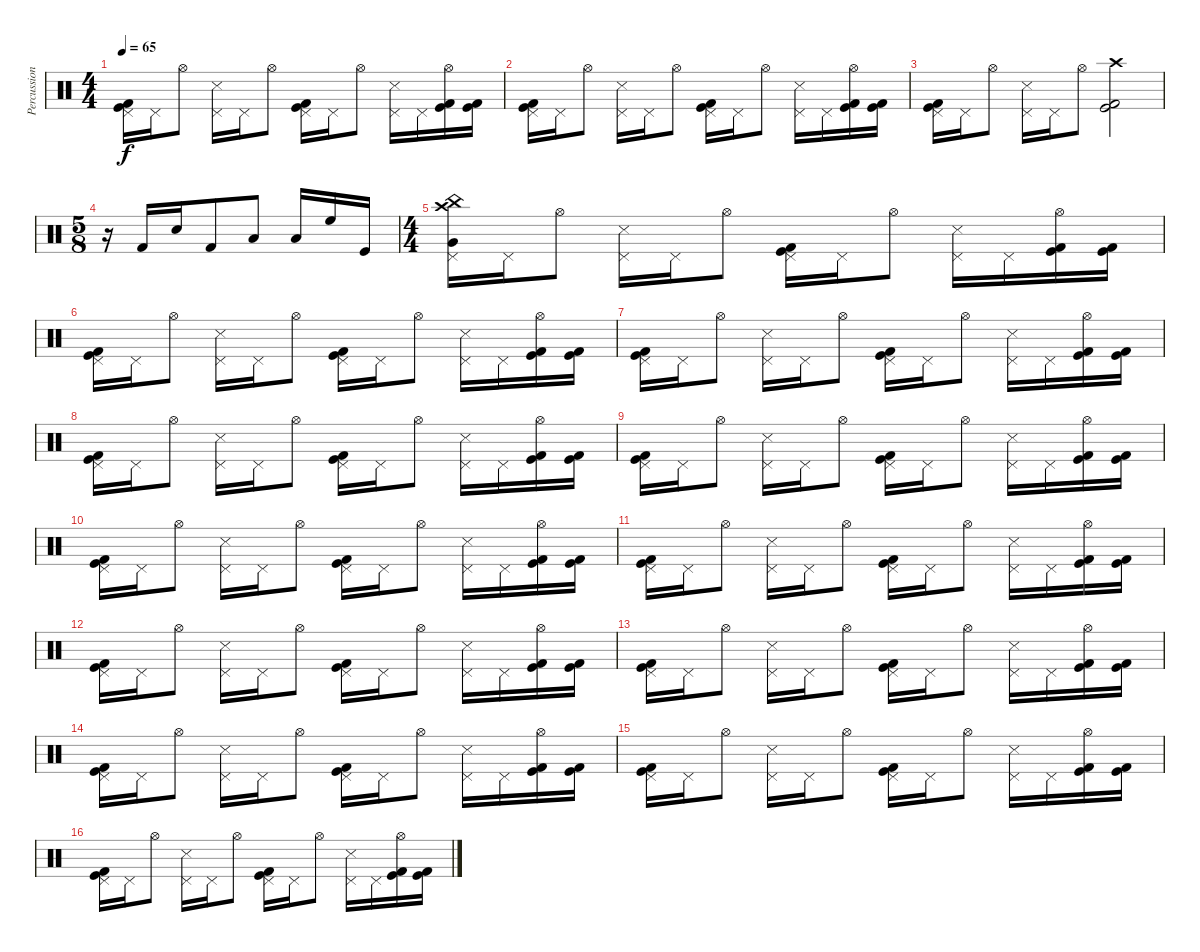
\track ("Percussion" "Percussion") {instrument percussion}
\staff {score}
\articulation defaults
\ts (4 4)
\tempo 65
\clef neutral
\ks c
("Pedal Hi-Hat (hit)" "Kick (hit)" "Kick (hit) 2").16{dy f} "Pedal Hi-Hat (hit)".16 "Hi-Hat (open)".8 ("Pedal Hi-Hat (hit)" "Snare (side stick) 3").16 "Pedal Hi-Hat (hit)".16 "Hi-Hat (open)".8 ("Pedal Hi-Hat (hit)" "Kick (hit) 2" "Kick (hit)").16 "Pedal Hi-Hat (hit)".16 "Hi-Hat (open)".8 ("Pedal Hi-Hat (hit)" "Snare (side stick) 3").16 "Pedal Hi-Hat (hit)".16 ("Hi-Hat (open)" "Kick (hit)" "Kick (hit) 2").16 ("Kick (hit)" "Kick (hit) 2").16 |
("Pedal Hi-Hat (hit)" "Kick (hit)" "Kick (hit) 2").16 "Pedal Hi-Hat (hit)".16 "Hi-Hat (open)".8 ("Pedal Hi-Hat (hit)" "Snare (side stick) 3").16 "Pedal Hi-Hat (hit)".16 "Hi-Hat (open)".8 ("Pedal Hi-Hat (hit)" "Kick (hit) 2" "Kick (hit)").16 "Pedal Hi-Hat (hit)".16 "Hi-Hat (open)".8 ("Pedal Hi-Hat (hit)" "Snare (side stick) 3").16 "Pedal Hi-Hat (hit)".16 ("Hi-Hat (open)" "Kick (hit)" "Kick (hit) 2").16 ("Kick (hit)" "Kick (hit) 2").16 |
("Pedal Hi-Hat (hit)" "Kick (hit)" "Kick (hit) 2").16 "Pedal Hi-Hat (hit)".16 "Hi-Hat (open)".8 ("Pedal Hi-Hat (hit)" "Snare (side stick) 3").16 "Pedal Hi-Hat (hit)".16 "Hi-Hat (open)".8 ("Crash high (hit)" "Kick (hit) 2" "Kick (hit)").2 |
\ts (5 8)
r.16 "Kick (hit) 2".16 "Snare (hit) 2".16 "Kick (hit) 2".8 "Low Tom (hit)".8 "Low Tom (hit)".16 "High Floor Tom (hit)".16 "Kick (hit)".16 |
\ts (4 4)
("China (hit)" "Pedal Hi-Hat (hit)" "Very Low Tom (hit)" "Crash high (hit)").16 "Pedal Hi-Hat (hit)".16 "Hi-Hat (open)".8 ("Pedal Hi-Hat (hit)" "Snare (side stick) 3").16 "Pedal Hi-Hat (hit)".16 "Hi-Hat (open)".8 ("Pedal Hi-Hat (hit)" "Kick (hit)" "Kick (hit) 2").16 "Pedal Hi-Hat (hit)".16 "Hi-Hat (open)".8 ("Pedal Hi-Hat (hit)" "Snare (side stick) 3").16 "Pedal Hi-Hat (hit)".16 ("Hi-Hat (open)" "Kick (hit)" "Kick (hit) 2").16 ("Kick (hit)" "Kick (hit) 2").16 |
("Pedal Hi-Hat (hit)" "Kick (hit)" "Kick (hit) 2").16 "Pedal Hi-Hat (hit)".16 "Hi-Hat (open)".8 ("Pedal Hi-Hat (hit)" "Snare (side stick) 3").16 "Pedal Hi-Hat (hit)".16 "Hi-Hat (open)".8 ("Pedal Hi-Hat (hit)" "Kick (hit) 2" "Kick (hit)").16 "Pedal Hi-Hat (hit)".16 "Hi-Hat (open)".8 ("Pedal Hi-Hat (hit)" "Snare (side stick) 3").16 "Pedal Hi-Hat (hit)".16 ("Hi-Hat (open)" "Kick (hit)" "Kick (hit) 2").16 ("Kick (hit)" "Kick (hit) 2").16 |
("Pedal Hi-Hat (hit)" "Kick (hit)" "Kick (hit) 2").16 "Pedal Hi-Hat (hit)".16 "Hi-Hat (open)".8 ("Pedal Hi-Hat (hit)" "Metronome (hit)").16 "Pedal Hi-Hat (hit)".16 "Hi-Hat (open)".8 ("Pedal Hi-Hat (hit)" "Kick (hit) 2" "Kick (hit)").16 "Pedal Hi-Hat (hit)".16 "Hi-Hat (open)".8 ("Pedal Hi-Hat (hit)" "Snare (side stick) 3").16 "Pedal Hi-Hat (hit)".16 ("Hi-Hat (open)" "Kick (hit)" "Kick (hit) 2").16 ("Kick (hit)" "Kick (hit) 2").16 |
("Pedal Hi-Hat (hit)" "Kick (hit)" "Kick (hit) 2").16 "Pedal Hi-Hat (hit)".16 "Hi-Hat (open)".8 ("Pedal Hi-Hat (hit)" "Snare (side stick) 3").16 "Pedal Hi-Hat (hit)".16 "Hi-Hat (open)".8 ("Pedal Hi-Hat (hit)" "Kick (hit) 2" "Kick (hit)").16 "Pedal Hi-Hat (hit)".16 "Hi-Hat (open)".8 ("Pedal Hi-Hat (hit)" "Snare (side stick) 3").16 "Pedal Hi-Hat (hit)".16 ("Hi-Hat (open)" "Kick (hit)" "Kick (hit) 2").16 ("Kick (hit)" "Kick (hit) 2").16 |
("Pedal Hi-Hat (hit)" "Kick (hit)" "Kick (hit) 2").16 "Pedal Hi-Hat (hit)".16 "Hi-Hat (open)".8 ("Pedal Hi-Hat (hit)" "Snare (side stick) 3").16 "Pedal Hi-Hat (hit)".16 "Hi-Hat (open)".8 ("Pedal Hi-Hat (hit)" "Kick (hit) 2" "Kick (hit)").16 "Pedal Hi-Hat (hit)".16 "Hi-Hat (open)".8 ("Pedal Hi-Hat (hit)" "Snare (side stick) 3").16 "Pedal Hi-Hat (hit)".16 ("Hi-Hat (open)" "Kick (hit)" "Kick (hit) 2").16 ("Kick (hit)" "Kick (hit) 2").16 |
("Pedal Hi-Hat (hit)" "Kick (hit)" "Kick (hit) 2").16 "Pedal Hi-Hat (hit)".16 "Hi-Hat (open)".8 ("Pedal Hi-Hat (hit)" "Snare (side stick) 3").16 "Pedal Hi-Hat (hit)".16 "Hi-Hat (open)".8 ("Pedal Hi-Hat (hit)" "Kick (hit) 2" "Kick (hit)").16 "Pedal Hi-Hat (hit)".16 "Hi-Hat (open)".8 ("Pedal Hi-Hat (hit)" "Snare (side stick) 3").16 "Pedal Hi-Hat (hit)".16 ("Hi-Hat (open)" "Kick (hit)" "Kick (hit) 2").16 ("Kick (hit)" "Kick (hit) 2").16 |
("Pedal Hi-Hat (hit)" "Kick (hit)" "Kick (hit) 2").16 "Pedal Hi-Hat (hit)".16 "Hi-Hat (open)".8 ("Pedal Hi-Hat (hit)" "Snare (side stick) 3").16 "Pedal Hi-Hat (hit)".16 "Hi-Hat (open)".8 ("Pedal Hi-Hat (hit)" "Kick (hit) 2" "Kick (hit)").16 "Pedal Hi-Hat (hit)".16 "Hi-Hat (open)".8 ("Pedal Hi-Hat (hit)" "Snare (side stick) 3").16 "Pedal Hi-Hat (hit)".16 ("Hi-Hat (open)" "Kick (hit)" "Kick (hit) 2").16 ("Kick (hit)" "Kick (hit) 2").16 |
("Pedal Hi-Hat (hit)" "Kick (hit)" "Kick (hit) 2").16 "Pedal Hi-Hat (hit)".16 "Hi-Hat (open)".8 ("Pedal Hi-Hat (hit)" "Snare (side stick) 3").16 "Pedal Hi-Hat (hit)".16 "Hi-Hat (open)".8 ("Pedal Hi-Hat (hit)" "Kick (hit) 2" "Kick (hit)").16 "Pedal Hi-Hat (hit)".16 "Hi-Hat (open)".8 ("Pedal Hi-Hat (hit)" "Snare (side stick) 3").16 "Pedal Hi-Hat (hit)".16 ("Hi-Hat (open)" "Kick (hit)" "Kick (hit) 2").16 ("Kick (hit)" "Kick (hit) 2").16 |
("Pedal Hi-Hat (hit)" "Kick (hit)" "Kick (hit) 2").16 "Pedal Hi-Hat (hit)".16 "Hi-Hat (open)".8 ("Pedal Hi-Hat (hit)" "Snare (side stick) 3").16 "Pedal Hi-Hat (hit)".16 "Hi-Hat (open)".8 ("Pedal Hi-Hat (hit)" "Kick (hit) 2" "Kick (hit)").16 "Pedal Hi-Hat (hit)".16 "Hi-Hat (open)".8 ("Pedal Hi-Hat (hit)" "Snare (side stick) 3").16 "Pedal Hi-Hat (hit)".16 ("Hi-Hat (open)" "Kick (hit)" "Kick (hit) 2").16 ("Kick (hit)" "Kick (hit) 2").16 |
("Pedal Hi-Hat (hit)" "Kick (hit)" "Kick (hit) 2").16 "Pedal Hi-Hat (hit)".16 "Hi-Hat (open)".8 ("Pedal Hi-Hat (hit)" "Snare (side stick) 3").16 "Pedal Hi-Hat (hit)".16 "Hi-Hat (open)".8 ("Pedal Hi-Hat (hit)" "Kick (hit) 2" "Kick (hit)").16 "Pedal Hi-Hat (hit)".16 "Hi-Hat (open)".8 ("Pedal Hi-Hat (hit)" "Snare (side stick) 3").16 "Pedal Hi-Hat (hit)".16 ("Hi-Hat (open)" "Kick (hit)" "Kick (hit) 2").16 ("Kick (hit)" "Kick (hit) 2").16 |
("Pedal Hi-Hat (hit)" "Kick (hit)" "Kick (hit) 2").16 "Pedal Hi-Hat (hit)".16 "Hi-Hat (open)".8 ("Pedal Hi-Hat (hit)" "Snare (side stick) 3").16 "Pedal Hi-Hat (hit)".16 "Hi-Hat (open)".8 ("Pedal Hi-Hat (hit)" "Kick (hit) 2" "Kick (hit)").16 "Pedal Hi-Hat (hit)".16 "Hi-Hat (open)".8 ("Pedal Hi-Hat (hit)" "Snare (side stick) 3").16 "Pedal Hi-Hat (hit)".16 ("Hi-Hat (open)" "Kick (hit)" "Kick (hit) 2").16 ("Kick (hit)" "Kick (hit) 2").16 |
("Pedal Hi-Hat (hit)" "Kick (hit)" "Kick (hit) 2").16 "Pedal Hi-Hat (hit)".16 "Hi-Hat (open)".8 ("Pedal Hi-Hat (hit)" "Snare (side stick) 3").16 "Pedal Hi-Hat (hit)".16 "Hi-Hat (open)".8 ("Pedal Hi-Hat (hit)" "Kick (hit) 2" "Kick (hit)").16 "Pedal Hi-Hat (hit)".16 "Hi-Hat (open)".8 ("Pedal Hi-Hat (hit)" "Snare (side stick) 3").16 "Pedal Hi-Hat (hit)".16 ("Hi-Hat (open)" "Kick (hit)" "Kick (hit) 2").16 ("Kick (hit)" "Kick (hit) 2").16
